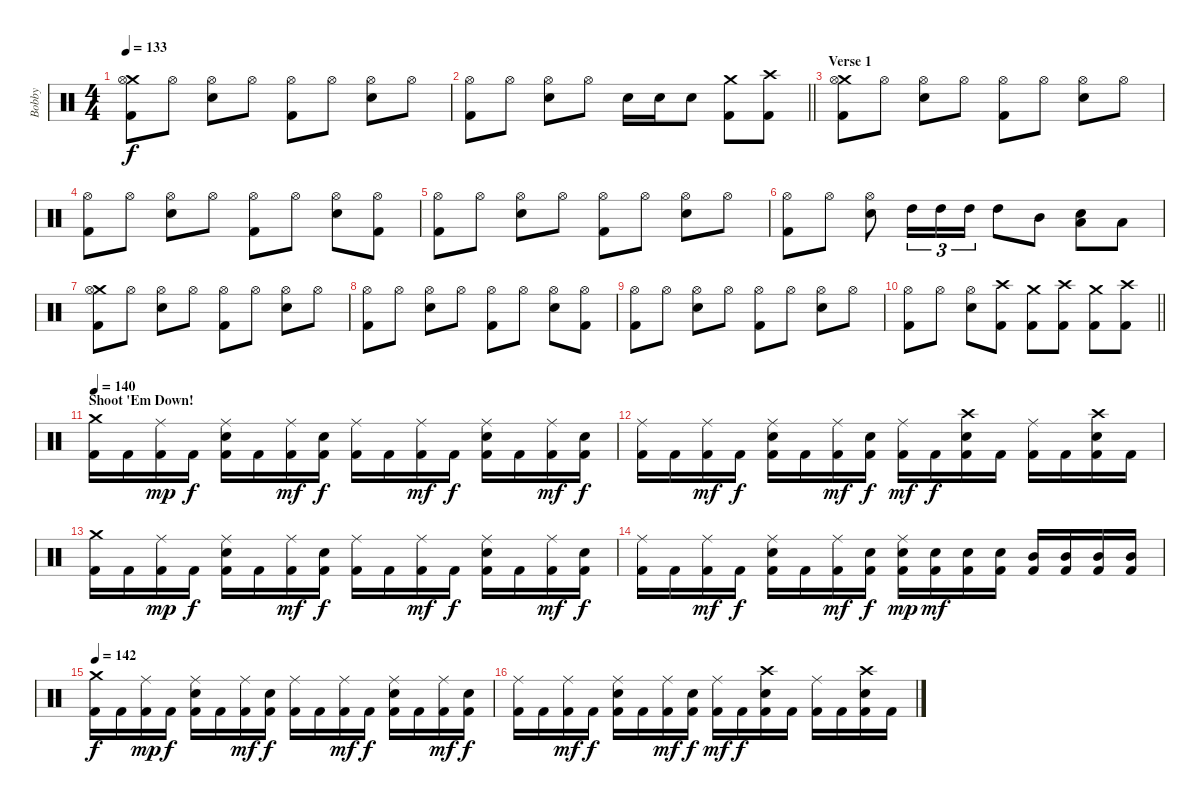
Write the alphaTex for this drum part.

\track ("Bobby" "Bobby") {instrument percussion}
\staff {score}
\articulation defaults
\ts (4 4)
\tempo 133
\clef neutral
\ks c
("Crash medium (hit)" "Hi-Hat (open)" "Kick (hit) 2").8{dy f} "Hi-Hat (open)".8 ("Hi-Hat (open)" "Electric Snare (hit)").8 "Hi-Hat (open)".8 ("Hi-Hat (open)" "Kick (hit) 2").8 "Hi-Hat (open)".8 ("Hi-Hat (open)" "Electric Snare (hit)").8 "Hi-Hat (open)".8 |
\barLineRight lightlight
("Hi-Hat (open)" "Kick (hit) 2").8 "Hi-Hat (open)".8 ("Hi-Hat (open)" "Electric Snare (hit)").8 "Hi-Hat (open)".8 "Electric Snare (hit)".16 "Electric Snare (hit)".16 "Electric Snare (hit)".8 ("Crash medium (hit)" "Kick (hit) 2").8 ("Crash high (hit)" "Kick (hit) 2").8 |
\section ("" "Verse 1")
("Crash medium (hit)" "Hi-Hat (open)" "Kick (hit) 2").8 "Hi-Hat (open)".8 ("Hi-Hat (open)" "Electric Snare (hit)").8 "Hi-Hat (open)".8 ("Hi-Hat (open)" "Kick (hit) 2").8 "Hi-Hat (open)".8 ("Hi-Hat (open)" "Electric Snare (hit)").8 "Hi-Hat (open)".8 |
("Hi-Hat (open)" "Kick (hit) 2").8 "Hi-Hat (open)".8 ("Hi-Hat (open)" "Electric Snare (hit)").8 "Hi-Hat (open)".8 ("Hi-Hat (open)" "Kick (hit) 2").8 "Hi-Hat (open)".8 ("Hi-Hat (open)" "Electric Snare (hit)").8 ("Hi-Hat (open)" "Kick (hit) 2").8 |
("Hi-Hat (open)" "Kick (hit) 2").8 "Hi-Hat (open)".8 ("Hi-Hat (open)" "Electric Snare (hit)").8 "Hi-Hat (open)".8 ("Hi-Hat (open)" "Kick (hit) 2").8 "Hi-Hat (open)".8 ("Hi-Hat (open)" "Electric Snare (hit)").8 "Hi-Hat (open)".8 |
("Hi-Hat (open)" "Kick (hit) 2").8 "Hi-Hat (open)".8 ("Hi-Hat (open)" "Electric Snare (hit)").8 "High Tom (hit)".16{tu (3 2)} "High Tom (hit)".16{tu (3 2)} "High Tom (hit)".16{tu (3 2)} "High Tom (hit)".8 "Mid Tom (hit)".8 ("Electric Snare (hit)" "Low Tom (hit)").8 "Low Tom (hit)".8 |
("Crash medium (hit)" "Hi-Hat (open)" "Kick (hit) 2").8 "Hi-Hat (open)".8 ("Hi-Hat (open)" "Electric Snare (hit)").8 "Hi-Hat (open)".8 ("Hi-Hat (open)" "Kick (hit) 2").8 "Hi-Hat (open)".8 ("Hi-Hat (open)" "Electric Snare (hit)").8 "Hi-Hat (open)".8 |
("Hi-Hat (open)" "Kick (hit) 2").8 "Hi-Hat (open)".8 ("Hi-Hat (open)" "Electric Snare (hit)").8 "Hi-Hat (open)".8 ("Hi-Hat (open)" "Kick (hit) 2").8 "Hi-Hat (open)".8 ("Hi-Hat (open)" "Electric Snare (hit)").8 ("Hi-Hat (open)" "Kick (hit) 2").8 |
("Hi-Hat (open)" "Kick (hit) 2").8 "Hi-Hat (open)".8 ("Hi-Hat (open)" "Electric Snare (hit)").8 "Hi-Hat (open)".8 ("Hi-Hat (open)" "Kick (hit) 2").8 "Hi-Hat (open)".8 ("Hi-Hat (open)" "Electric Snare (hit)").8 "Hi-Hat (open)".8 |
\barLineRight lightlight
("Hi-Hat (open)" "Kick (hit) 2").8 "Hi-Hat (open)".8 ("Hi-Hat (open)" "Electric Snare (hit)").8 ("Crash high (hit)" "Kick (hit) 2").8 ("Crash medium (hit)" "Kick (hit) 2").8 ("Crash high (hit)" "Kick (hit) 2").8 ("Crash medium (hit)" "Kick (hit) 2").8 ("Crash high (hit)" "Kick (hit) 2").8 |
\section ("" "Shoot 'Em Down!")
\tempo 140
("Crash medium (hit)" "Kick (hit) 2").16 "Kick (hit) 2".16 ("Ride (middle)" "Kick (hit) 2").16{dy mp} "Kick (hit) 2".16{dy f} ("Ride (middle)" "Electric Snare (hit)" "Kick (hit) 2").16 "Kick (hit) 2".16 ("Ride (middle)" "Kick (hit) 2").16{dy mf} ("Electric Snare (hit)" "Kick (hit) 2").16{dy f} ("Ride (middle)" "Kick (hit) 2").16 "Kick (hit) 2".16 ("Ride (middle)" "Kick (hit) 2").16{dy mf} "Kick (hit) 2".16{dy f} ("Ride (middle)" "Electric Snare (hit)" "Kick (hit) 2").16 "Kick (hit) 2".16 ("Ride (middle)" "Kick (hit) 2").16{dy mf} ("Electric Snare (hit)" "Kick (hit) 2").16{dy f} |
("Ride (middle)" "Kick (hit) 2").16 "Kick (hit) 2".16 ("Ride (middle)" "Kick (hit) 2").16{dy mf} "Kick (hit) 2".16{dy f} ("Ride (middle)" "Electric Snare (hit)" "Kick (hit) 2").16 "Kick (hit) 2".16 ("Ride (middle)" "Kick (hit) 2").16{dy mf} ("Electric Snare (hit)" "Kick (hit) 2").16{dy f} ("Ride (middle)" "Kick (hit) 2").16{dy mf} "Kick (hit) 2".16{dy f} ("Crash high (hit)" "Electric Snare (hit)" "Kick (hit) 2").16 "Kick (hit) 2".16 ("Ride (middle)" "Kick (hit) 2").16 "Kick (hit) 2".16 ("Crash high (hit)" "Electric Snare (hit)" "Kick (hit) 2").16 "Kick (hit) 2".16 |
("Crash medium (hit)" "Kick (hit) 2").16 "Kick (hit) 2".16 ("Ride (middle)" "Kick (hit) 2").16{dy mp} "Kick (hit) 2".16{dy f} ("Ride (middle)" "Electric Snare (hit)" "Kick (hit) 2").16 "Kick (hit) 2".16 ("Ride (middle)" "Kick (hit) 2").16{dy mf} ("Electric Snare (hit)" "Kick (hit) 2").16{dy f} ("Ride (middle)" "Kick (hit) 2").16 "Kick (hit) 2".16 ("Ride (middle)" "Kick (hit) 2").16{dy mf} "Kick (hit) 2".16{dy f} ("Ride (middle)" "Electric Snare (hit)" "Kick (hit) 2").16 "Kick (hit) 2".16 ("Ride (middle)" "Kick (hit) 2").16{dy mf} ("Electric Snare (hit)" "Kick (hit) 2").16{dy f} |
("Ride (middle)" "Kick (hit) 2").16 "Kick (hit) 2".16 ("Ride (middle)" "Kick (hit) 2").16{dy mf} "Kick (hit) 2".16{dy f} ("Ride (middle)" "Electric Snare (hit)" "Kick (hit) 2").16 "Kick (hit) 2".16 ("Ride (middle)" "Kick (hit) 2").16{dy mf} ("Electric Snare (hit)" "Kick (hit) 2").16{dy f} ("Ride (middle)" "Electric Snare (hit)" "Kick (hit) 2").16{dy mp} ("Electric Snare (hit)" "Kick (hit) 2").16{dy mf} ("Electric Snare (hit)" "Kick (hit) 2").16 ("Electric Snare (hit)" "Kick (hit) 2").16 ("Mid Tom (hit)" "Kick (hit) 2").16 ("Mid Tom (hit)" "Kick (hit) 2").16 ("Mid Tom (hit)" "Kick (hit) 2").16 ("Mid Tom (hit)" "Kick (hit) 2").16 |
\tempo 142
("Crash medium (hit)" "Kick (hit) 2").16{dy f} "Kick (hit) 2".16 ("Ride (middle)" "Kick (hit) 2").16{dy mp} "Kick (hit) 2".16{dy f} ("Ride (middle)" "Electric Snare (hit)" "Kick (hit) 2").16 "Kick (hit) 2".16 ("Ride (middle)" "Kick (hit) 2").16{dy mf} ("Electric Snare (hit)" "Kick (hit) 2").16{dy f} ("Ride (middle)" "Kick (hit) 2").16 "Kick (hit) 2".16 ("Ride (middle)" "Kick (hit) 2").16{dy mf} "Kick (hit) 2".16{dy f} ("Ride (middle)" "Electric Snare (hit)" "Kick (hit) 2").16 "Kick (hit) 2".16 ("Ride (middle)" "Kick (hit) 2").16{dy mf} ("Electric Snare (hit)" "Kick (hit) 2").16{dy f} |
("Ride (middle)" "Kick (hit) 2").16 "Kick (hit) 2".16 ("Ride (middle)" "Kick (hit) 2").16{dy mf} "Kick (hit) 2".16{dy f} ("Ride (middle)" "Electric Snare (hit)" "Kick (hit) 2").16 "Kick (hit) 2".16 ("Ride (middle)" "Kick (hit) 2").16{dy mf} ("Electric Snare (hit)" "Kick (hit) 2").16{dy f} ("Ride (middle)" "Kick (hit) 2").16{dy mf} "Kick (hit) 2".16{dy f} ("Crash high (hit)" "Electric Snare (hit)" "Kick (hit) 2").16 "Kick (hit) 2".16 ("Ride (middle)" "Kick (hit) 2").16 "Kick (hit) 2".16 ("Crash high (hit)" "Electric Snare (hit)" "Kick (hit) 2").16 "Kick (hit) 2".16
